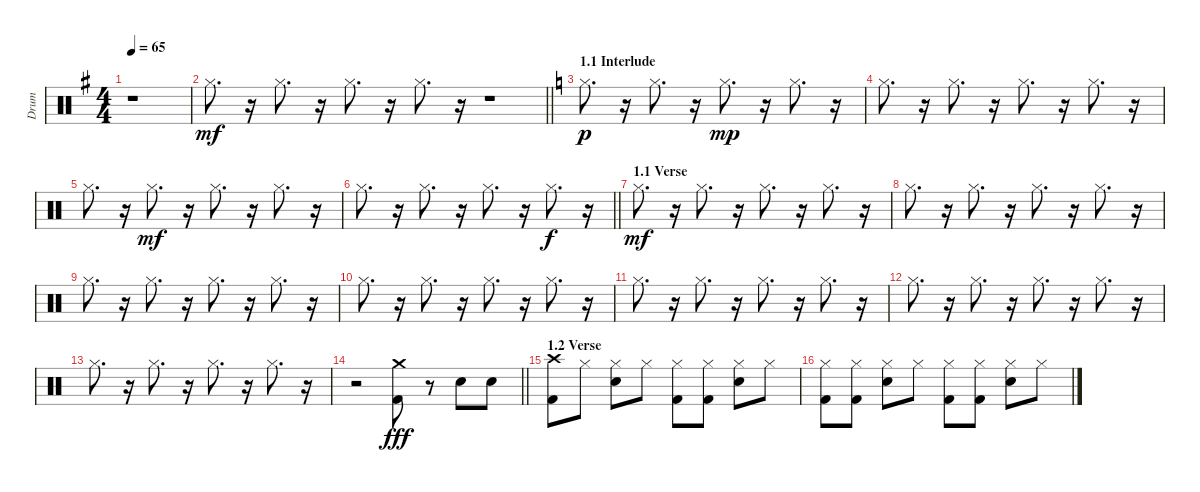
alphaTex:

\track ("Drum" "Drum") {instrument percussion}
\staff {score}
\articulation defaults
\ts (4 4)
\tempo 65
\clef neutral
\ks eminor
r.1{dy mf} |
\barLineRight lightlight "Hi-Hat (closed)".8{d}
r.16 "Hi-Hat (closed)".8{d} r.16 "Hi-Hat (closed)".8{d} r.16 "Hi-Hat (closed)".8{d} r.16 r.1 |
\section ("" "1.1 Interlude")
\ks c "Hi-Hat (closed)".8{d dy p}
r.16 "Hi-Hat (closed)".8{d} r.16 "Hi-Hat (closed)".8{d dy mp} r.16 "Hi-Hat (closed)".8{d} r.16 |
"Hi-Hat (closed)".8{d} r.16 "Hi-Hat (closed)".8{d} r.16 "Hi-Hat (closed)".8{d} r.16 "Hi-Hat (closed)".8{d} r.16 |
"Hi-Hat (closed)".8{d} r.16 "Hi-Hat (closed)".8{d dy mf} r.16 "Hi-Hat (closed)".8{d} r.16 "Hi-Hat (closed)".8{d} r.16 |
\barLineRight lightlight "Hi-Hat (closed)".8{d}
r.16 "Hi-Hat (closed)".8{d} r.16 "Hi-Hat (closed)".8{d} r.16 "Hi-Hat (closed)".8{d dy f} r.16 |
\section ("" "1.1 Verse")
"Hi-Hat (closed)".8{d dy mf} r.16 "Hi-Hat (closed)".8{d} r.16 "Hi-Hat (closed)".8{d} r.16 "Hi-Hat (closed)".8{d} r.16 |
"Hi-Hat (closed)".8{d} r.16 "Hi-Hat (closed)".8{d} r.16 "Hi-Hat (closed)".8{d} r.16 "Hi-Hat (closed)".8{d} r.16 |
"Hi-Hat (closed)".8{d} r.16 "Hi-Hat (closed)".8{d} r.16 "Hi-Hat (closed)".8{d} r.16 "Hi-Hat (closed)".8{d} r.16 |
"Hi-Hat (closed)".8{d} r.16 "Hi-Hat (closed)".8{d} r.16 "Hi-Hat (closed)".8{d} r.16 "Hi-Hat (closed)".8{d} r.16 |
"Hi-Hat (closed)".8{d} r.16 "Hi-Hat (closed)".8{d} r.16 "Hi-Hat (closed)".8{d} r.16 "Hi-Hat (closed)".8{d} r.16 |
"Hi-Hat (closed)".8{d} r.16 "Hi-Hat (closed)".8{d} r.16 "Hi-Hat (closed)".8{d} r.16 "Hi-Hat (closed)".8{d} r.16 |
"Hi-Hat (closed)".8{d} r.16 "Hi-Hat (closed)".8{d} r.16 "Hi-Hat (closed)".8{d} r.16 "Hi-Hat (closed)".8{d} r.16 |
\barLineRight lightlight
r.2 ("Crash medium (hit)" "Kick (hit) 2").8{dy fff} r.8 "Electric Snare (hit)".8 "Electric Snare (hit)".8 |
\section ("" "1.2 Verse")
("Crash high (hit)" "Kick (hit) 2").8 "Hi-Hat (closed)".8 ("Electric Snare (hit)" "Hi-Hat (closed)").8 "Hi-Hat (closed)".8 ("Kick (hit) 2" "Hi-Hat (closed)").8 ("Kick (hit) 2" "Hi-Hat (closed)").8 ("Electric Snare (hit)" "Hi-Hat (closed)").8 "Hi-Hat (closed)".8 |
("Hi-Hat (closed)" "Kick (hit) 2").8 ("Kick (hit) 2" "Hi-Hat (closed)").8 ("Electric Snare (hit)" "Hi-Hat (closed)").8 "Hi-Hat (closed)".8 ("Kick (hit) 2" "Hi-Hat (closed)").8 ("Kick (hit) 2" "Hi-Hat (closed)").8 ("Electric Snare (hit)" "Hi-Hat (closed)").8 "Hi-Hat (closed)".8
